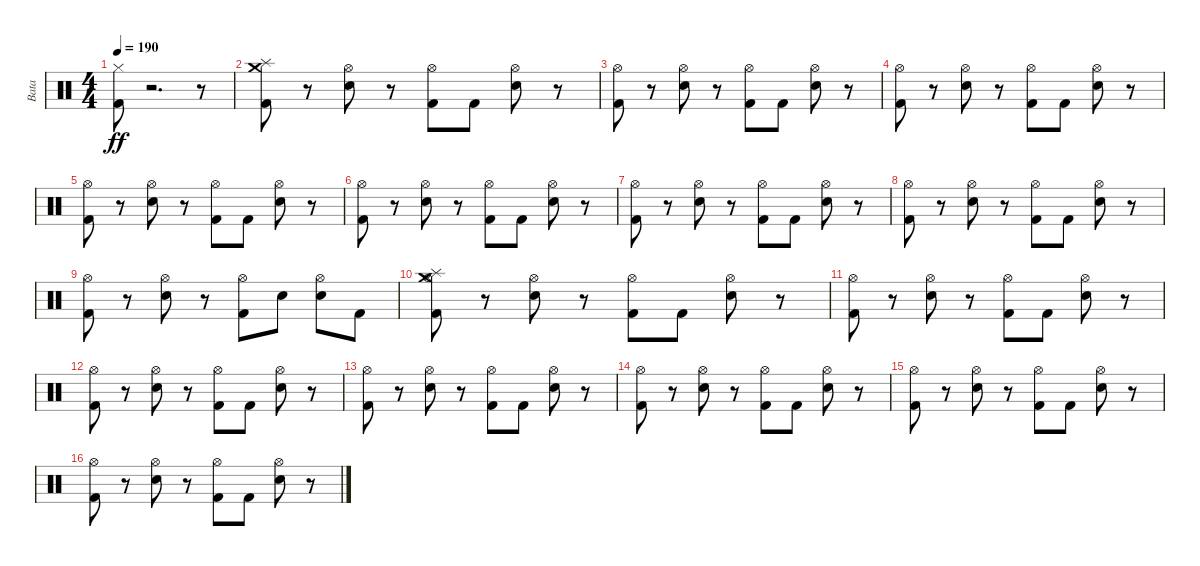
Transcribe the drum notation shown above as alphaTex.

\track ("Bata" "Bata") {instrument percussion}
\staff {score}
\articulation defaults
\ts (4 4)
\tempo 190
\clef neutral
\ks c
("Hi-Hat (closed)" "Kick (hit) 2").8{dy ff} r.2{d} r.8 |
("Crash medium (hit)" "Splash (hit)" "Kick (hit) 2").8 r.8 ("Hi-Hat (open)" "Snare (hit) 2").8 r.8 ("Hi-Hat (open)" "Kick (hit) 2").8 "Kick (hit) 2".8 ("Snare (hit) 2" "Hi-Hat (open)").8 r.8 |
("Hi-Hat (open)" "Kick (hit) 2").8 r.8 ("Snare (hit) 2" "Hi-Hat (open)").8 r.8 ("Kick (hit) 2" "Hi-Hat (open)").8 "Kick (hit) 2".8 ("Snare (hit) 2" "Hi-Hat (open)").8 r.8 |
("Hi-Hat (open)" "Kick (hit) 2").8 r.8 ("Snare (hit) 2" "Hi-Hat (open)").8 r.8 ("Kick (hit) 2" "Hi-Hat (open)").8 "Kick (hit) 2".8 ("Hi-Hat (open)" "Snare (hit) 2").8 r.8 |
("Kick (hit) 2" "Hi-Hat (open)").8 r.8 ("Snare (hit) 2" "Hi-Hat (open)").8 r.8 ("Hi-Hat (open)" "Kick (hit) 2").8 "Kick (hit) 2".8 ("Hi-Hat (open)" "Snare (hit) 2").8 r.8 |
("Kick (hit) 2" "Hi-Hat (open)").8 r.8 ("Snare (hit) 2" "Hi-Hat (open)").8 r.8 ("Hi-Hat (open)" "Kick (hit) 2").8 "Kick (hit) 2".8 ("Snare (hit) 2" "Hi-Hat (open)").8 r.8 |
("Kick (hit) 2" "Hi-Hat (open)").8 r.8 ("Hi-Hat (open)" "Snare (hit) 2").8 r.8 ("Hi-Hat (open)" "Kick (hit) 2").8 "Kick (hit) 2".8 ("Snare (hit) 2" "Hi-Hat (open)").8 r.8 |
("Hi-Hat (open)" "Kick (hit) 2").8 r.8 ("Hi-Hat (open)" "Snare (hit) 2").8 r.8 ("Kick (hit) 2" "Hi-Hat (open)").8 "Kick (hit) 2".8 ("Snare (hit) 2" "Hi-Hat (open)").8 r.8 |
("Hi-Hat (open)" "Kick (hit) 2").8 r.8 ("Hi-Hat (open)" "Snare (hit) 2").8 r.8 ("Kick (hit) 2" "Hi-Hat (open)").8 "Snare (hit) 2".8 ("Snare (hit) 2" "Hi-Hat (open)").8 "Kick (hit) 2".8 |
("Hi-Hat (open)" "Kick (hit) 2" "Crash medium (hit)" "Splash (hit)").8 r.8 ("Hi-Hat (open)" "Snare (hit) 2").8 r.8 ("Hi-Hat (open)" "Kick (hit) 2").8 "Kick (hit) 2".8 ("Hi-Hat (open)" "Snare (hit) 2").8 r.8 |
("Hi-Hat (open)" "Kick (hit) 2").8 r.8 ("Hi-Hat (open)" "Snare (hit) 2").8 r.8 ("Hi-Hat (open)" "Kick (hit) 2").8 "Kick (hit) 2".8 ("Snare (hit) 2" "Hi-Hat (open)").8 r.8 |
("Hi-Hat (open)" "Kick (hit) 2").8 r.8 ("Snare (hit) 2" "Hi-Hat (open)").8 r.8 ("Hi-Hat (open)" "Kick (hit) 2").8 "Kick (hit) 2".8 ("Hi-Hat (open)" "Snare (hit) 2").8 r.8 |
("Hi-Hat (open)" "Kick (hit) 2").8 r.8 ("Hi-Hat (open)" "Snare (hit) 2").8 r.8 ("Kick (hit) 2" "Hi-Hat (open)").8 "Kick (hit) 2".8 ("Hi-Hat (open)" "Snare (hit) 2").8 r.8 |
("Hi-Hat (open)" "Kick (hit) 2").8 r.8 ("Snare (hit) 2" "Hi-Hat (open)").8 r.8 ("Hi-Hat (open)" "Kick (hit) 2").8 "Kick (hit) 2".8 ("Snare (hit) 2" "Hi-Hat (open)").8 r.8 |
("Hi-Hat (open)" "Kick (hit) 2").8 r.8 ("Hi-Hat (open)" "Snare (hit) 2").8 r.8 ("Hi-Hat (open)" "Kick (hit) 2").8 "Kick (hit) 2".8 ("Hi-Hat (open)" "Snare (hit) 2").8 r.8 |
("Kick (hit) 2" "Hi-Hat (open)").8 r.8 ("Hi-Hat (open)" "Snare (hit) 2").8 r.8 ("Hi-Hat (open)" "Kick (hit) 2").8 "Kick (hit) 2".8 ("Hi-Hat (open)" "Snare (hit) 2").8 r.8
